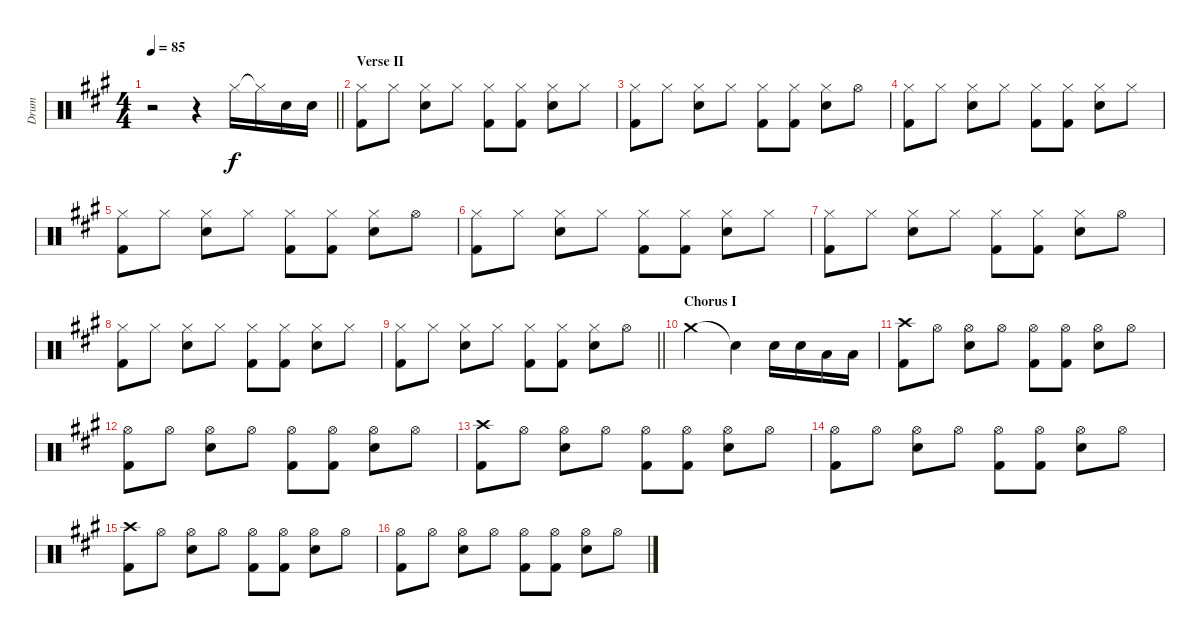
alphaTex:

\track ("Drum" "Drum") {instrument percussion}
\staff {score}
\articulation defaults
\ts (4 4)
\tempo 85
\clef neutral
\barLineRight lightlight
\ks a
r.2{dy f} r.4 "Hi-Hat (closed)".16 "Hi-Hat (closed)"{t}.16 "Snare (hit) 2".16 "Snare (hit) 2".16 |
\section ("" "Verse II")
("Hi-Hat (closed)" "Kick (hit) 2").8 "Hi-Hat (closed)".8 ("Hi-Hat (closed)" "Snare (hit) 2").8 "Hi-Hat (closed)".8 ("Hi-Hat (closed)" "Kick (hit) 2").8 ("Hi-Hat (closed)" "Kick (hit) 2").8 ("Hi-Hat (closed)" "Snare (hit) 2").8 "Hi-Hat (closed)".8 |
("Hi-Hat (closed)" "Kick (hit) 2").8 "Hi-Hat (closed)".8 ("Hi-Hat (closed)" "Snare (hit) 2").8 "Hi-Hat (closed)".8 ("Hi-Hat (closed)" "Kick (hit) 2").8 ("Hi-Hat (closed)" "Kick (hit) 2").8 ("Hi-Hat (closed)" "Snare (hit) 2").8 "Hi-Hat (open)".8 |
("Hi-Hat (closed)" "Kick (hit) 2").8 "Hi-Hat (closed)".8 ("Hi-Hat (closed)" "Snare (hit) 2").8 "Hi-Hat (closed)".8 ("Hi-Hat (closed)" "Kick (hit) 2").8 ("Hi-Hat (closed)" "Kick (hit) 2").8 ("Hi-Hat (closed)" "Snare (hit) 2").8 "Hi-Hat (closed)".8 |
("Hi-Hat (closed)" "Kick (hit) 2").8 "Hi-Hat (closed)".8 ("Hi-Hat (closed)" "Snare (hit) 2").8 "Hi-Hat (closed)".8 ("Hi-Hat (closed)" "Kick (hit) 2").8 ("Hi-Hat (closed)" "Kick (hit) 2").8 ("Hi-Hat (closed)" "Snare (hit) 2").8 "Hi-Hat (open)".8 |
("Hi-Hat (closed)" "Kick (hit) 2").8 "Hi-Hat (closed)".8 ("Hi-Hat (closed)" "Snare (hit) 2").8 "Hi-Hat (closed)".8 ("Hi-Hat (closed)" "Kick (hit) 2").8 ("Hi-Hat (closed)" "Kick (hit) 2").8 ("Hi-Hat (closed)" "Snare (hit) 2").8 "Hi-Hat (closed)".8 |
("Hi-Hat (closed)" "Kick (hit) 2").8 "Hi-Hat (closed)".8 ("Hi-Hat (closed)" "Snare (hit) 2").8 "Hi-Hat (closed)".8 ("Hi-Hat (closed)" "Kick (hit) 2").8 ("Hi-Hat (closed)" "Kick (hit) 2").8 ("Hi-Hat (closed)" "Snare (hit) 2").8 "Hi-Hat (open)".8 |
("Hi-Hat (closed)" "Kick (hit) 2").8 "Hi-Hat (closed)".8 ("Hi-Hat (closed)" "Snare (hit) 2").8 "Hi-Hat (closed)".8 ("Hi-Hat (closed)" "Kick (hit) 2").8 ("Hi-Hat (closed)" "Kick (hit) 2").8 ("Hi-Hat (closed)" "Snare (hit) 2").8 "Hi-Hat (closed)".8 |
\barLineRight lightlight
("Hi-Hat (closed)" "Kick (hit) 2").8 "Hi-Hat (closed)".8 ("Hi-Hat (closed)" "Snare (hit) 2").8 "Hi-Hat (closed)".8 ("Hi-Hat (closed)" "Kick (hit) 2").8 ("Hi-Hat (closed)" "Kick (hit) 2").8 ("Hi-Hat (closed)" "Snare (hit) 2").8 "Hi-Hat (open)".8 |
\section ("" "Chorus I")
"Crash medium (hit)".2 "Snare (hit)"{t}.4 "Snare (hit) 2".16 "Snare (hit) 2".16 "Low Floor Tom (hit)".16 "Low Floor Tom (hit)".16 |
("Crash high (hit)" "Kick (hit) 2").8 "Hi-Hat (open)".8 ("Hi-Hat (open)" "Snare (hit) 2").8 "Hi-Hat (open)".8 ("Hi-Hat (open)" "Kick (hit) 2").8 ("Hi-Hat (open)" "Kick (hit) 2").8 ("Hi-Hat (open)" "Snare (hit) 2").8 "Hi-Hat (open)".8 |
("Hi-Hat (open)" "Kick (hit) 2").8 "Hi-Hat (open)".8 ("Hi-Hat (open)" "Snare (hit) 2").8 "Hi-Hat (open)".8 ("Hi-Hat (open)" "Kick (hit) 2").8 ("Hi-Hat (open)" "Kick (hit) 2").8 ("Hi-Hat (open)" "Snare (hit) 2").8 "Hi-Hat (open)".8 |
("Crash high (hit)" "Kick (hit) 2").8 "Hi-Hat (open)".8 ("Hi-Hat (open)" "Snare (hit) 2").8 "Hi-Hat (open)".8 ("Hi-Hat (open)" "Kick (hit) 2").8 ("Hi-Hat (open)" "Kick (hit) 2").8 ("Hi-Hat (open)" "Snare (hit) 2").8 "Hi-Hat (open)".8 |
("Hi-Hat (open)" "Kick (hit) 2").8 "Hi-Hat (open)".8 ("Hi-Hat (open)" "Snare (hit) 2").8 "Hi-Hat (open)".8 ("Hi-Hat (open)" "Kick (hit) 2").8 ("Hi-Hat (open)" "Kick (hit) 2").8 ("Hi-Hat (open)" "Snare (hit) 2").8 "Hi-Hat (open)".8 |
("Crash high (hit)" "Kick (hit) 2").8 "Hi-Hat (open)".8 ("Hi-Hat (open)" "Snare (hit) 2").8 "Hi-Hat (open)".8 ("Hi-Hat (open)" "Kick (hit) 2").8 ("Hi-Hat (open)" "Kick (hit) 2").8 ("Hi-Hat (open)" "Snare (hit) 2").8 "Hi-Hat (open)".8 |
("Hi-Hat (open)" "Kick (hit) 2").8 "Hi-Hat (open)".8 ("Hi-Hat (open)" "Snare (hit) 2").8 "Hi-Hat (open)".8 ("Hi-Hat (open)" "Kick (hit) 2").8 ("Hi-Hat (open)" "Kick (hit) 2").8 ("Hi-Hat (open)" "Snare (hit) 2").8 "Hi-Hat (open)".8
